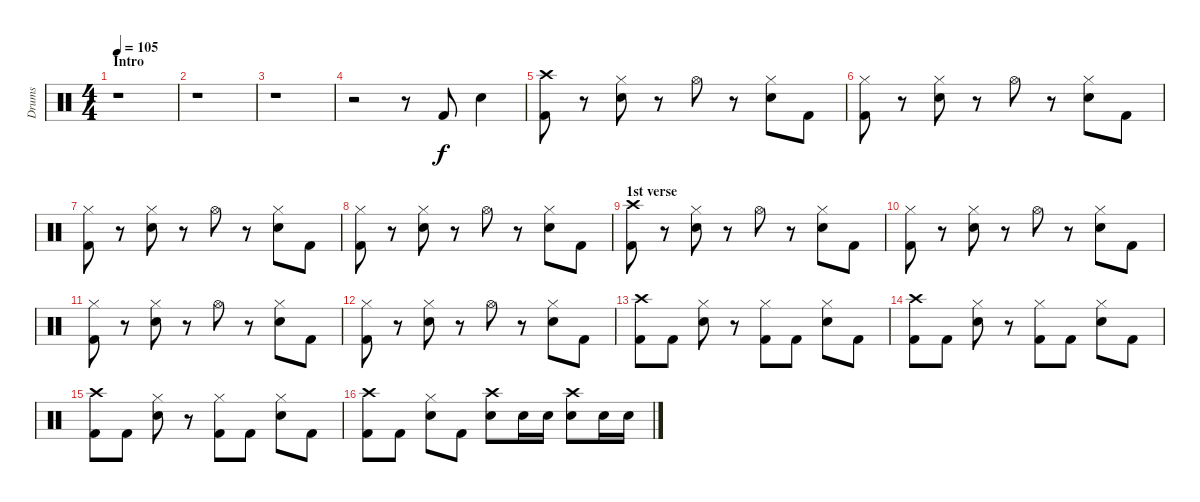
\track ("Drums" "Drums") {instrument percussion}
\staff {score}
\articulation defaults
\ts (4 4)
\section ("" "Intro")
\tempo 105
\clef neutral
\ks c
r.1{dy f} |
r.1 |
r.1 |
r.2 r.8 "Kick (hit) 2".8 "Electric Snare (hit)".4 |
("Crash high (hit)" "Kick (hit) 2").8 r.8 ("Hi-Hat (closed)" "Electric Snare (hit)").8 r.8 "Hi-Hat (open)".8 r.8 ("Hi-Hat (closed)" "Electric Snare (hit)").8 "Kick (hit) 2".8 |
("Hi-Hat (closed)" "Kick (hit) 2").8 r.8 ("Hi-Hat (closed)" "Electric Snare (hit)").8 r.8 "Hi-Hat (open)".8 r.8 ("Hi-Hat (closed)" "Electric Snare (hit)").8 "Kick (hit) 2".8 |
("Hi-Hat (closed)" "Kick (hit) 2").8 r.8 ("Hi-Hat (closed)" "Electric Snare (hit)").8 r.8 "Hi-Hat (open)".8 r.8 ("Hi-Hat (closed)" "Electric Snare (hit)").8 "Kick (hit) 2".8 |
("Hi-Hat (closed)" "Kick (hit) 2").8 r.8 ("Hi-Hat (closed)" "Electric Snare (hit)").8 r.8 "Hi-Hat (open)".8 r.8 ("Hi-Hat (closed)" "Electric Snare (hit)").8 "Kick (hit) 2".8 |
\section ("" "1st verse")
("Crash high (hit)" "Kick (hit) 2").8 r.8 ("Hi-Hat (closed)" "Electric Snare (hit)").8 r.8 "Hi-Hat (open)".8 r.8 ("Hi-Hat (closed)" "Electric Snare (hit)").8 "Kick (hit) 2".8 |
("Hi-Hat (closed)" "Kick (hit) 2").8 r.8 ("Hi-Hat (closed)" "Electric Snare (hit)").8 r.8 "Hi-Hat (open)".8 r.8 ("Hi-Hat (closed)" "Electric Snare (hit)").8 "Kick (hit) 2".8 |
("Hi-Hat (closed)" "Kick (hit) 2").8 r.8 ("Hi-Hat (closed)" "Electric Snare (hit)").8 r.8 "Hi-Hat (open)".8 r.8 ("Hi-Hat (closed)" "Electric Snare (hit)").8 "Kick (hit) 2".8 |
("Hi-Hat (closed)" "Kick (hit) 2").8 r.8 ("Hi-Hat (closed)" "Electric Snare (hit)").8 r.8 "Hi-Hat (open)".8 r.8 ("Hi-Hat (closed)" "Electric Snare (hit)").8 "Kick (hit) 2".8 |
("Crash high (hit)" "Kick (hit) 2").8 "Kick (hit) 2".8 ("Hi-Hat (closed)" "Electric Snare (hit)").8 r.8 ("Hi-Hat (closed)" "Kick (hit) 2").8 "Kick (hit) 2".8 ("Hi-Hat (closed)" "Electric Snare (hit)").8 "Kick (hit) 2".8 |
("Crash high (hit)" "Kick (hit) 2").8 "Kick (hit) 2".8 ("Hi-Hat (closed)" "Electric Snare (hit)").8 r.8 ("Hi-Hat (closed)" "Kick (hit) 2").8 "Kick (hit) 2".8 ("Hi-Hat (closed)" "Electric Snare (hit)").8 "Kick (hit) 2".8 |
("Crash high (hit)" "Kick (hit) 2").8 "Kick (hit) 2".8 ("Hi-Hat (closed)" "Electric Snare (hit)").8 r.8 ("Hi-Hat (closed)" "Kick (hit) 2").8 "Kick (hit) 2".8 ("Hi-Hat (closed)" "Electric Snare (hit)").8 "Kick (hit) 2".8 |
("Crash high (hit)" "Kick (hit) 2").8 "Kick (hit) 2".8 ("Hi-Hat (closed)" "Electric Snare (hit)").8 "Kick (hit) 2".8 ("Crash high (hit)" "Electric Snare (hit)").8 "Electric Snare (hit)".16 "Electric Snare (hit)".16 ("Crash high (hit)" "Electric Snare (hit)").8 "Electric Snare (hit)".16 "Electric Snare (hit)".16
